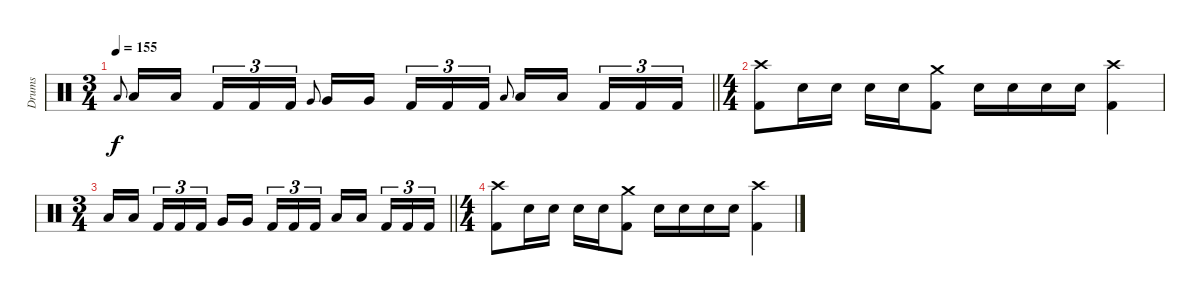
\track ("Drums" "Drums") {instrument percussion}
\staff {score}
\articulation defaults
\ts (3 4)
\tempo 155
\clef neutral
\barLineRight lightlight
\ks c "Low Tom (hit)".8{gr onbeat dy f} "Low Tom (hit)".16 "Low Tom (hit)".16{beam splitsecondary} "Kick (hit) 2".16{tu (3 2)} "Kick (hit) 2".16{tu (3 2)} "Kick (hit) 2".16{tu (3 2)} "Very Low Tom (hit)".8{gr onbeat} "Very Low Tom (hit)".16 "Very Low Tom (hit)".16{beam splitsecondary} "Kick (hit) 2".16{tu (3 2)} "Kick (hit) 2".16{tu (3 2)} "Kick (hit) 2".16{tu (3 2)} "Low Floor Tom (hit)".8{gr onbeat} "Low Floor Tom (hit)".16 "Low Floor Tom (hit)".16{beam splitsecondary} "Kick (hit) 2".16{tu (3 2)} "Kick (hit) 2".16{tu (3 2)} "Kick (hit) 2".16{tu (3 2)}
|
\ts (4 4)
("Crash high (hit)" "Kick (hit) 2").8 "Electric Snare (hit)".16 "Electric Snare (hit)".16 "Electric Snare (hit)".16 "Electric Snare (hit)".16 ("Crash medium (hit)" "Kick (hit) 2").8 "Electric Snare (hit)".16 "Electric Snare (hit)".16 "Electric Snare (hit)".16 "Electric Snare (hit)".16 ("Crash high (hit)" "Kick (hit) 2").4 |
\ts (3 4)
\barLineRight lightlight "Low Tom (hit)".16 "Low Tom (hit)".16{beam splitsecondary} "Kick (hit) 2".16{tu (3 2)} "Kick (hit) 2".16{tu (3 2)} "Kick (hit) 2".16{tu (3 2)} "Very Low Tom (hit)".16 "Very Low Tom (hit)".16{beam splitsecondary} "Kick (hit) 2".16{tu (3 2)} "Kick (hit) 2".16{tu (3 2)} "Kick (hit) 2".16{tu (3 2)} "Low Floor Tom (hit)".16 "Low Floor Tom (hit)".16{beam splitsecondary} "Kick (hit) 2".16{tu (3 2)} "Kick (hit) 2".16{tu (3 2)} "Kick (hit) 2".16{tu (3 2)}
|
\ts (4 4)
("Crash high (hit)" "Kick (hit) 2").8 "Electric Snare (hit)".16 "Electric Snare (hit)".16 "Electric Snare (hit)".16 "Electric Snare (hit)".16 ("Crash medium (hit)" "Kick (hit) 2").8 "Electric Snare (hit)".16 "Electric Snare (hit)".16 "Electric Snare (hit)".16 "Electric Snare (hit)".16 ("Crash high (hit)" "Kick (hit) 2").4
